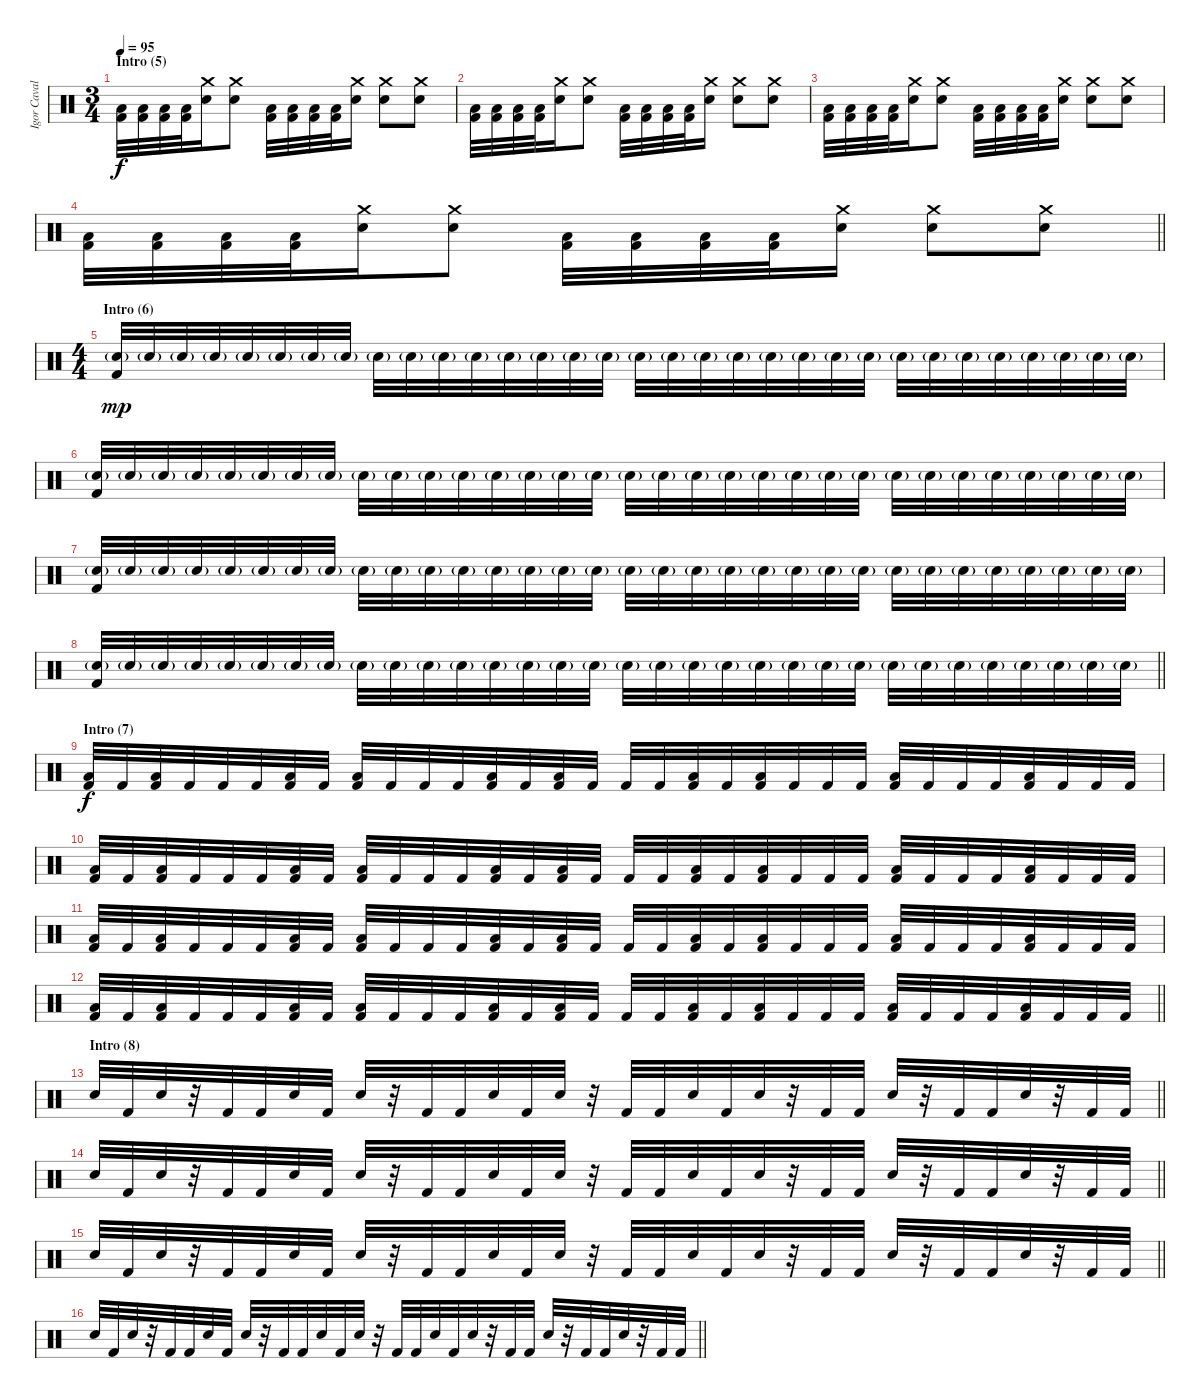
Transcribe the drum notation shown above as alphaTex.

\track ("Igor Cavalera" "Igor Caval") {instrument percussion}
\staff {score}
\articulation defaults
\ts (3 4)
\section ("" "Intro (5)")
\tempo 95
\clef neutral
\ks c
("Low Floor Tom (hit)" "Kick (hit) 2").32{dy f} ("Low Floor Tom (hit)" "Kick (hit) 2").32 ("Low Floor Tom (hit)" "Kick (hit) 2").32 ("Low Floor Tom (hit)" "Kick (hit) 2").32 ("Crash medium (hit)" "Electric Snare (hit)").16 ("Crash medium (hit)" "Electric Snare (hit)").8 ("Low Floor Tom (hit)" "Kick (hit) 2").32 ("Low Floor Tom (hit)" "Kick (hit) 2").32 ("Low Floor Tom (hit)" "Kick (hit) 2").32 ("Low Floor Tom (hit)" "Kick (hit) 2").32 ("Crash medium (hit)" "Electric Snare (hit)").16 ("Crash medium (hit)" "Electric Snare (hit)").8 ("Crash medium (hit)" "Electric Snare (hit)").8 |
("Low Floor Tom (hit)" "Kick (hit) 2").32 ("Low Floor Tom (hit)" "Kick (hit) 2").32 ("Low Floor Tom (hit)" "Kick (hit) 2").32 ("Low Floor Tom (hit)" "Kick (hit) 2").32 ("Crash medium (hit)" "Electric Snare (hit)").16 ("Crash medium (hit)" "Electric Snare (hit)").8 ("Low Floor Tom (hit)" "Kick (hit) 2").32 ("Low Floor Tom (hit)" "Kick (hit) 2").32 ("Low Floor Tom (hit)" "Kick (hit) 2").32 ("Low Floor Tom (hit)" "Kick (hit) 2").32 ("Crash medium (hit)" "Electric Snare (hit)").16 ("Crash medium (hit)" "Electric Snare (hit)").8 ("Crash medium (hit)" "Electric Snare (hit)").8 |
("Low Floor Tom (hit)" "Kick (hit) 2").32 ("Low Floor Tom (hit)" "Kick (hit) 2").32 ("Low Floor Tom (hit)" "Kick (hit) 2").32 ("Low Floor Tom (hit)" "Kick (hit) 2").32 ("Crash medium (hit)" "Electric Snare (hit)").16 ("Crash medium (hit)" "Electric Snare (hit)").8 ("Low Floor Tom (hit)" "Kick (hit) 2").32 ("Low Floor Tom (hit)" "Kick (hit) 2").32 ("Low Floor Tom (hit)" "Kick (hit) 2").32 ("Low Floor Tom (hit)" "Kick (hit) 2").32 ("Crash medium (hit)" "Electric Snare (hit)").16 ("Crash medium (hit)" "Electric Snare (hit)").8 ("Crash medium (hit)" "Electric Snare (hit)").8 |
\barLineRight lightlight
("Low Floor Tom (hit)" "Kick (hit) 2").32 ("Low Floor Tom (hit)" "Kick (hit) 2").32 ("Low Floor Tom (hit)" "Kick (hit) 2").32 ("Low Floor Tom (hit)" "Kick (hit) 2").32 ("Crash medium (hit)" "Electric Snare (hit)").16 ("Crash medium (hit)" "Electric Snare (hit)").8 ("Low Floor Tom (hit)" "Kick (hit) 2").32 ("Low Floor Tom (hit)" "Kick (hit) 2").32 ("Low Floor Tom (hit)" "Kick (hit) 2").32 ("Low Floor Tom (hit)" "Kick (hit) 2").32 ("Crash medium (hit)" "Electric Snare (hit)").16 ("Crash medium (hit)" "Electric Snare (hit)").8 ("Crash medium (hit)" "Electric Snare (hit)").8 |
\ts (4 4)
\section ("" "Intro (6)")
("Electric Snare (hit)"{g} "Kick (hit) 2").32{dy mp} "Electric Snare (hit)"{g}.32 "Electric Snare (hit)"{g}.32 "Electric Snare (hit)"{g}.32 "Electric Snare (hit)"{g}.32 "Electric Snare (hit)"{g}.32 "Electric Snare (hit)"{g}.32 "Electric Snare (hit)"{g}.32 "Electric Snare (hit)"{g}.32 "Electric Snare (hit)"{g}.32 "Electric Snare (hit)"{g}.32 "Electric Snare (hit)"{g}.32 "Electric Snare (hit)"{g}.32 "Electric Snare (hit)"{g}.32 "Electric Snare (hit)"{g}.32 "Electric Snare (hit)"{g}.32 "Electric Snare (hit)"{g}.32 "Electric Snare (hit)"{g}.32 "Electric Snare (hit)"{g}.32 "Electric Snare (hit)"{g}.32 "Electric Snare (hit)"{g}.32 "Electric Snare (hit)"{g}.32 "Electric Snare (hit)"{g}.32 "Electric Snare (hit)"{g}.32 "Electric Snare (hit)"{g}.32 "Electric Snare (hit)"{g}.32 "Electric Snare (hit)"{g}.32 "Electric Snare (hit)"{g}.32 "Electric Snare (hit)"{g}.32 "Electric Snare (hit)"{g}.32 "Electric Snare (hit)"{g}.32 "Electric Snare (hit)"{g}.32 |
("Electric Snare (hit)"{g} "Kick (hit) 2").32 "Electric Snare (hit)"{g}.32 "Electric Snare (hit)"{g}.32 "Electric Snare (hit)"{g}.32 "Electric Snare (hit)"{g}.32 "Electric Snare (hit)"{g}.32 "Electric Snare (hit)"{g}.32 "Electric Snare (hit)"{g}.32 "Electric Snare (hit)"{g}.32 "Electric Snare (hit)"{g}.32 "Electric Snare (hit)"{g}.32 "Electric Snare (hit)"{g}.32 "Electric Snare (hit)"{g}.32 "Electric Snare (hit)"{g}.32 "Electric Snare (hit)"{g}.32 "Electric Snare (hit)"{g}.32 "Electric Snare (hit)"{g}.32 "Electric Snare (hit)"{g}.32 "Electric Snare (hit)"{g}.32 "Electric Snare (hit)"{g}.32 "Electric Snare (hit)"{g}.32 "Electric Snare (hit)"{g}.32 "Electric Snare (hit)"{g}.32 "Electric Snare (hit)"{g}.32 "Electric Snare (hit)"{g}.32 "Electric Snare (hit)"{g}.32 "Electric Snare (hit)"{g}.32 "Electric Snare (hit)"{g}.32 "Electric Snare (hit)"{g}.32 "Electric Snare (hit)"{g}.32 "Electric Snare (hit)"{g}.32 "Electric Snare (hit)"{g}.32 |
("Electric Snare (hit)"{g} "Kick (hit) 2").32 "Electric Snare (hit)"{g}.32 "Electric Snare (hit)"{g}.32 "Electric Snare (hit)"{g}.32 "Electric Snare (hit)"{g}.32 "Electric Snare (hit)"{g}.32 "Electric Snare (hit)"{g}.32 "Electric Snare (hit)"{g}.32 "Electric Snare (hit)"{g}.32 "Electric Snare (hit)"{g}.32 "Electric Snare (hit)"{g}.32 "Electric Snare (hit)"{g}.32 "Electric Snare (hit)"{g}.32 "Electric Snare (hit)"{g}.32 "Electric Snare (hit)"{g}.32 "Electric Snare (hit)"{g}.32 "Electric Snare (hit)"{g}.32 "Electric Snare (hit)"{g}.32 "Electric Snare (hit)"{g}.32 "Electric Snare (hit)"{g}.32 "Electric Snare (hit)"{g}.32 "Electric Snare (hit)"{g}.32 "Electric Snare (hit)"{g}.32 "Electric Snare (hit)"{g}.32 "Electric Snare (hit)"{g}.32 "Electric Snare (hit)"{g}.32 "Electric Snare (hit)"{g}.32 "Electric Snare (hit)"{g}.32 "Electric Snare (hit)"{g}.32 "Electric Snare (hit)"{g}.32 "Electric Snare (hit)"{g}.32 "Electric Snare (hit)"{g}.32 |
\barLineRight lightlight
("Electric Snare (hit)"{g} "Kick (hit) 2").32 "Electric Snare (hit)"{g}.32 "Electric Snare (hit)"{g}.32 "Electric Snare (hit)"{g}.32 "Electric Snare (hit)"{g}.32 "Electric Snare (hit)"{g}.32 "Electric Snare (hit)"{g}.32 "Electric Snare (hit)"{g}.32 "Electric Snare (hit)"{g}.32 "Electric Snare (hit)"{g}.32 "Electric Snare (hit)"{g}.32 "Electric Snare (hit)"{g}.32 "Electric Snare (hit)"{g}.32 "Electric Snare (hit)"{g}.32 "Electric Snare (hit)"{g}.32 "Electric Snare (hit)"{g}.32 "Electric Snare (hit)"{g}.32 "Electric Snare (hit)"{g}.32 "Electric Snare (hit)"{g}.32 "Electric Snare (hit)"{g}.32 "Electric Snare (hit)"{g}.32 "Electric Snare (hit)"{g}.32 "Electric Snare (hit)"{g}.32 "Electric Snare (hit)"{g}.32 "Electric Snare (hit)"{g}.32 "Electric Snare (hit)"{g}.32 "Electric Snare (hit)"{g}.32 "Electric Snare (hit)"{g}.32 "Electric Snare (hit)"{g}.32 "Electric Snare (hit)"{g}.32 "Electric Snare (hit)"{g}.32 "Electric Snare (hit)"{g}.32 |
\section ("" "Intro (7)")
("Low Floor Tom (hit)" "Kick (hit) 2").32{dy f} "Kick (hit) 2".32 ("Low Floor Tom (hit)" "Kick (hit) 2").32 "Kick (hit) 2".32 "Kick (hit) 2".32 "Kick (hit) 2".32 ("Low Floor Tom (hit)" "Kick (hit) 2").32 "Kick (hit) 2".32 ("Low Floor Tom (hit)" "Kick (hit) 2").32 "Kick (hit) 2".32 "Kick (hit) 2".32 "Kick (hit) 2".32 ("Low Floor Tom (hit)" "Kick (hit) 2").32 "Kick (hit) 2".32 ("Low Floor Tom (hit)" "Kick (hit) 2").32 "Kick (hit) 2".32 "Kick (hit) 2".32 "Kick (hit) 2".32 ("Low Floor Tom (hit)" "Kick (hit) 2").32 "Kick (hit) 2".32 ("Low Floor Tom (hit)" "Kick (hit) 2").32 "Kick (hit) 2".32 "Kick (hit) 2".32 "Kick (hit) 2".32 ("Low Floor Tom (hit)" "Kick (hit) 2").32 "Kick (hit) 2".32 "Kick (hit) 2".32 "Kick (hit) 2".32 ("Low Floor Tom (hit)" "Kick (hit) 2").32 "Kick (hit) 2".32 "Kick (hit) 2".32 "Kick (hit) 2".32 |
("Low Floor Tom (hit)" "Kick (hit) 2").32 "Kick (hit) 2".32 ("Low Floor Tom (hit)" "Kick (hit) 2").32 "Kick (hit) 2".32 "Kick (hit) 2".32 "Kick (hit) 2".32 ("Low Floor Tom (hit)" "Kick (hit) 2").32 "Kick (hit) 2".32 ("Low Floor Tom (hit)" "Kick (hit) 2").32 "Kick (hit) 2".32 "Kick (hit) 2".32 "Kick (hit) 2".32 ("Low Floor Tom (hit)" "Kick (hit) 2").32 "Kick (hit) 2".32 ("Low Floor Tom (hit)" "Kick (hit) 2").32 "Kick (hit) 2".32 "Kick (hit) 2".32 "Kick (hit) 2".32 ("Low Floor Tom (hit)" "Kick (hit) 2").32 "Kick (hit) 2".32 ("Low Floor Tom (hit)" "Kick (hit) 2").32 "Kick (hit) 2".32 "Kick (hit) 2".32 "Kick (hit) 2".32 ("Low Floor Tom (hit)" "Kick (hit) 2").32 "Kick (hit) 2".32 "Kick (hit) 2".32 "Kick (hit) 2".32 ("Low Floor Tom (hit)" "Kick (hit) 2").32 "Kick (hit) 2".32 "Kick (hit) 2".32 "Kick (hit) 2".32 |
("Low Floor Tom (hit)" "Kick (hit) 2").32 "Kick (hit) 2".32 ("Low Floor Tom (hit)" "Kick (hit) 2").32 "Kick (hit) 2".32 "Kick (hit) 2".32 "Kick (hit) 2".32 ("Low Floor Tom (hit)" "Kick (hit) 2").32 "Kick (hit) 2".32 ("Low Floor Tom (hit)" "Kick (hit) 2").32 "Kick (hit) 2".32 "Kick (hit) 2".32 "Kick (hit) 2".32 ("Low Floor Tom (hit)" "Kick (hit) 2").32 "Kick (hit) 2".32 ("Low Floor Tom (hit)" "Kick (hit) 2").32 "Kick (hit) 2".32 "Kick (hit) 2".32 "Kick (hit) 2".32 ("Low Floor Tom (hit)" "Kick (hit) 2").32 "Kick (hit) 2".32 ("Low Floor Tom (hit)" "Kick (hit) 2").32 "Kick (hit) 2".32 "Kick (hit) 2".32 "Kick (hit) 2".32 ("Low Floor Tom (hit)" "Kick (hit) 2").32 "Kick (hit) 2".32 "Kick (hit) 2".32 "Kick (hit) 2".32 ("Low Floor Tom (hit)" "Kick (hit) 2").32 "Kick (hit) 2".32 "Kick (hit) 2".32 "Kick (hit) 2".32 |
\barLineRight lightlight
("Low Floor Tom (hit)" "Kick (hit) 2").32 "Kick (hit) 2".32 ("Low Floor Tom (hit)" "Kick (hit) 2").32 "Kick (hit) 2".32 "Kick (hit) 2".32 "Kick (hit) 2".32 ("Low Floor Tom (hit)" "Kick (hit) 2").32 "Kick (hit) 2".32 ("Low Floor Tom (hit)" "Kick (hit) 2").32 "Kick (hit) 2".32 "Kick (hit) 2".32 "Kick (hit) 2".32 ("Low Floor Tom (hit)" "Kick (hit) 2").32 "Kick (hit) 2".32 ("Low Floor Tom (hit)" "Kick (hit) 2").32 "Kick (hit) 2".32 "Kick (hit) 2".32 "Kick (hit) 2".32 ("Low Floor Tom (hit)" "Kick (hit) 2").32 "Kick (hit) 2".32 ("Low Floor Tom (hit)" "Kick (hit) 2").32 "Kick (hit) 2".32 "Kick (hit) 2".32 "Kick (hit) 2".32 ("Low Floor Tom (hit)" "Kick (hit) 2").32 "Kick (hit) 2".32 "Kick (hit) 2".32 "Kick (hit) 2".32 ("Low Floor Tom (hit)" "Kick (hit) 2").32 "Kick (hit) 2".32 "Kick (hit) 2".32 "Kick (hit) 2".32 |
\section ("" "Intro (8)")
\barLineRight lightlight "Electric Snare (hit)".32 "Kick (hit) 2".32 "Electric Snare (hit)".32
r.32 "Kick (hit) 2".32 "Kick (hit) 2".32 "Electric Snare (hit)".32 "Kick (hit) 2".32 "Electric Snare (hit)".32 r.32 "Kick (hit) 2".32 "Kick (hit) 2".32 "Electric Snare (hit)".32 "Kick (hit) 2".32 "Electric Snare (hit)".32 r.32 "Kick (hit) 2".32 "Kick (hit) 2".32 "Electric Snare (hit)".32 "Kick (hit) 2".32 "Electric Snare (hit)".32 r.32 "Kick (hit) 2".32 "Kick (hit) 2".32 "Electric Snare (hit)".32 r.32 "Kick (hit) 2".32 "Kick (hit) 2".32 "Electric Snare (hit)".32 r.32 "Kick (hit) 2".32 "Kick (hit) 2".32 |
\barLineRight lightlight "Electric Snare (hit)".32 "Kick (hit) 2".32 "Electric Snare (hit)".32
r.32 "Kick (hit) 2".32 "Kick (hit) 2".32 "Electric Snare (hit)".32 "Kick (hit) 2".32 "Electric Snare (hit)".32 r.32 "Kick (hit) 2".32 "Kick (hit) 2".32 "Electric Snare (hit)".32 "Kick (hit) 2".32 "Electric Snare (hit)".32 r.32 "Kick (hit) 2".32 "Kick (hit) 2".32 "Electric Snare (hit)".32 "Kick (hit) 2".32 "Electric Snare (hit)".32 r.32 "Kick (hit) 2".32 "Kick (hit) 2".32 "Electric Snare (hit)".32 r.32 "Kick (hit) 2".32 "Kick (hit) 2".32 "Electric Snare (hit)".32 r.32 "Kick (hit) 2".32 "Kick (hit) 2".32 |
\barLineRight lightlight "Electric Snare (hit)".32 "Kick (hit) 2".32 "Electric Snare (hit)".32
r.32 "Kick (hit) 2".32 "Kick (hit) 2".32 "Electric Snare (hit)".32 "Kick (hit) 2".32 "Electric Snare (hit)".32 r.32 "Kick (hit) 2".32 "Kick (hit) 2".32 "Electric Snare (hit)".32 "Kick (hit) 2".32 "Electric Snare (hit)".32 r.32 "Kick (hit) 2".32 "Kick (hit) 2".32 "Electric Snare (hit)".32 "Kick (hit) 2".32 "Electric Snare (hit)".32 r.32 "Kick (hit) 2".32 "Kick (hit) 2".32 "Electric Snare (hit)".32 r.32 "Kick (hit) 2".32 "Kick (hit) 2".32 "Electric Snare (hit)".32 r.32 "Kick (hit) 2".32 "Kick (hit) 2".32 |
\barLineRight lightlight "Electric Snare (hit)".32 "Kick (hit) 2".32 "Electric Snare (hit)".32
r.32 "Kick (hit) 2".32 "Kick (hit) 2".32 "Electric Snare (hit)".32 "Kick (hit) 2".32 "Electric Snare (hit)".32 r.32 "Kick (hit) 2".32 "Kick (hit) 2".32 "Electric Snare (hit)".32 "Kick (hit) 2".32 "Electric Snare (hit)".32 r.32 "Kick (hit) 2".32 "Kick (hit) 2".32 "Electric Snare (hit)".32 "Kick (hit) 2".32 "Electric Snare (hit)".32 r.32 "Kick (hit) 2".32 "Kick (hit) 2".32 "Electric Snare (hit)".32 r.32 "Kick (hit) 2".32 "Kick (hit) 2".32 "Electric Snare (hit)".32 r.32 "Kick (hit) 2".32 "Kick (hit) 2".32
